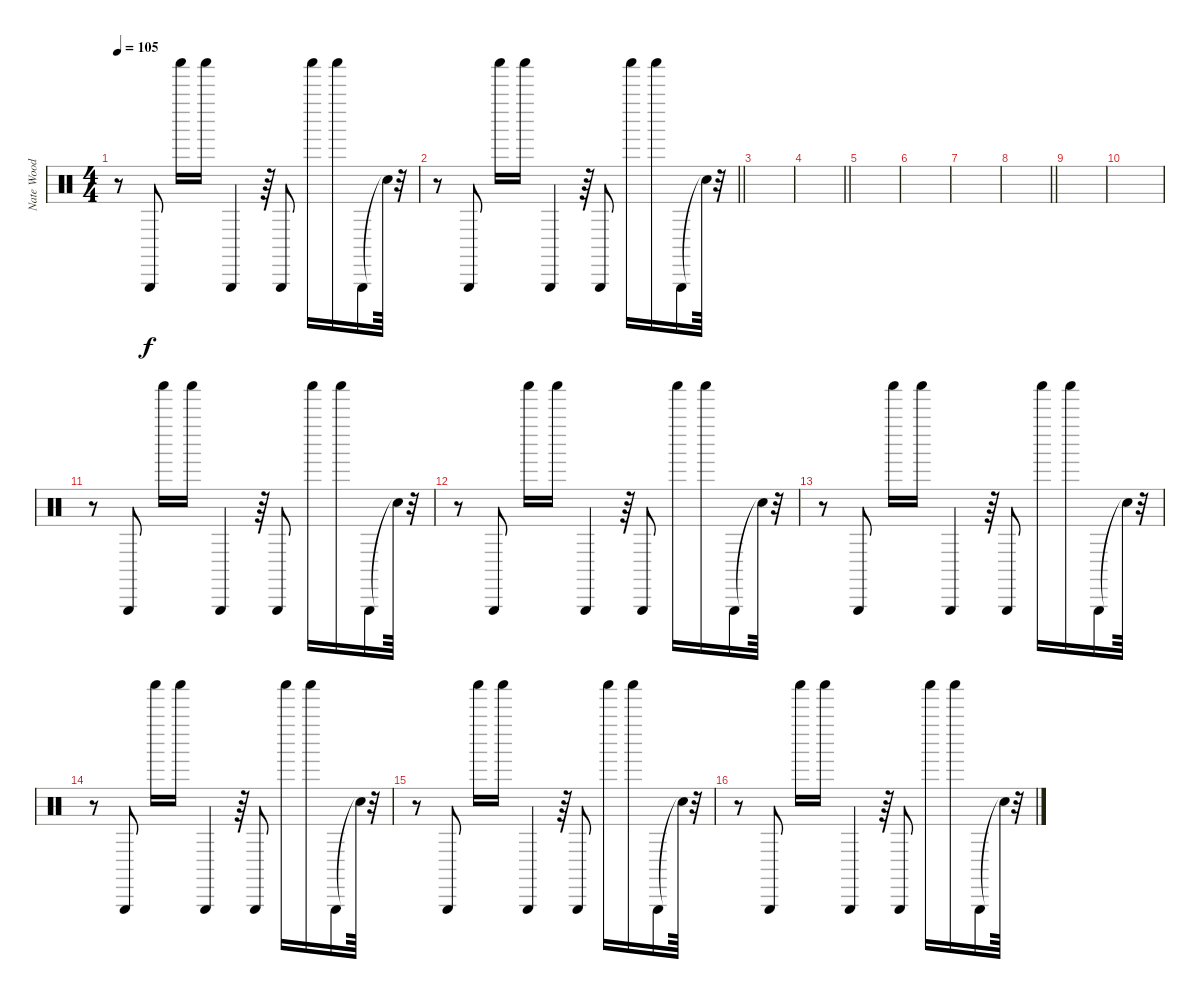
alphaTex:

\track ("Nate Wood " "Nate Wood ") {instrument percussion}
\staff {score}
\articulation defaults
\ts (4 4)
\tempo 105
\clef neutral
\ks c
r.8{dy f} "Triangle (hit)".8 "Shaker (hit)".16 "Shaker (hit)".16 "Triangle (hit)".4 r.64 "Triangle (hit)".8 "Shaker (hit)".16 "Shaker (hit)".16 "Triangle (hit)".16 "Snare (hit)"{t}.64 r.32 |
\barLineRight lightlight
r.8 "Triangle (hit)".8 "Shaker (hit)".16 "Shaker (hit)".16 "Triangle (hit)".4 r.64 "Triangle (hit)".8 "Shaker (hit)".16 "Shaker (hit)".16 "Triangle (hit)".16 "Snare (hit)"{t}.64 r.32 |
|
\barLineRight lightlight
|
|
|
|
\barLineRight lightlight
|
|
|
r.8 "Triangle (hit)".8 "Shaker (hit)".16 "Shaker (hit)".16 "Triangle (hit)".4 r.64 "Triangle (hit)".8 "Shaker (hit)".16 "Shaker (hit)".16 "Triangle (hit)".16 "Snare (hit)"{t}.64 r.32 |
r.8 "Triangle (hit)".8 "Shaker (hit)".16 "Shaker (hit)".16 "Triangle (hit)".4 r.64 "Triangle (hit)".8 "Shaker (hit)".16 "Shaker (hit)".16 "Triangle (hit)".16 "Snare (hit)"{t}.64 r.32 |
r.8 "Triangle (hit)".8 "Shaker (hit)".16 "Shaker (hit)".16 "Triangle (hit)".4 r.64 "Triangle (hit)".8 "Shaker (hit)".16 "Shaker (hit)".16 "Triangle (hit)".16 "Snare (hit)"{t}.64 r.32 |
r.8 "Triangle (hit)".8 "Shaker (hit)".16 "Shaker (hit)".16 "Triangle (hit)".4 r.64 "Triangle (hit)".8 "Shaker (hit)".16 "Shaker (hit)".16 "Triangle (hit)".16 "Snare (hit)"{t}.64 r.32 |
r.8 "Triangle (hit)".8 "Shaker (hit)".16 "Shaker (hit)".16 "Triangle (hit)".4 r.64 "Triangle (hit)".8 "Shaker (hit)".16 "Shaker (hit)".16 "Triangle (hit)".16 "Snare (hit)"{t}.64 r.32 |
r.8 "Triangle (hit)".8 "Shaker (hit)".16 "Shaker (hit)".16 "Triangle (hit)".4 r.64 "Triangle (hit)".8 "Shaker (hit)".16 "Shaker (hit)".16 "Triangle (hit)".16 "Snare (hit)"{t}.64 r.32
